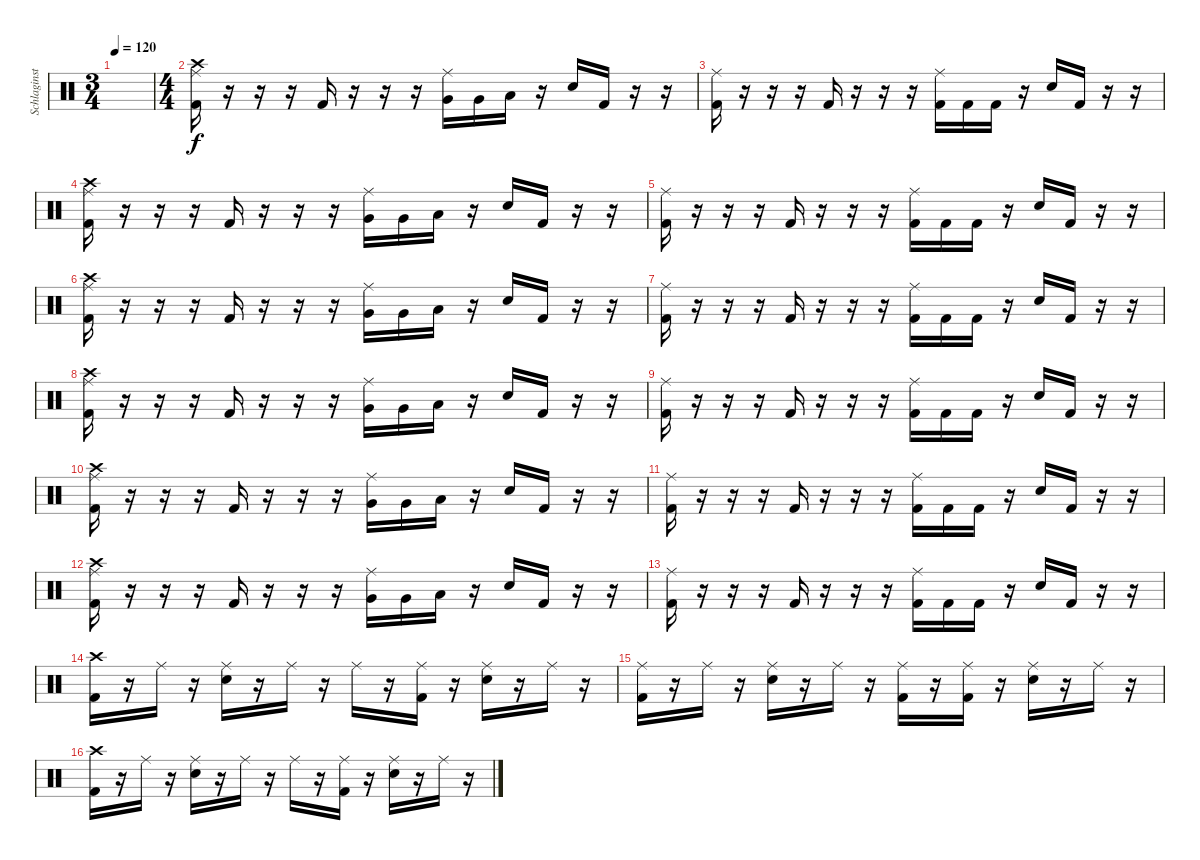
\track ("Schlaginstrumente - Auswahl" "Schlaginst") {instrument percussion}
\staff {score}
\articulation defaults
\ts (3 4)
\tempo 120
\clef neutral
\ks c
|
\ts (4 4)
("Ride (middle)" "Crash high (hit)" "Kick (hit) 2").16 r.16 r.16 r.16 "Kick (hit) 2".16 r.16 r.16 r.16 ("Ride (middle)" "Very Low Tom (hit)").16 "Very Low Tom (hit)".16 "Low Floor Tom (hit)".16 r.16 "Snare (hit) 2".16 "Kick (hit) 2".16 r.16 r.16 |
("Ride (middle)" "Kick (hit) 2").16 r.16 r.16 r.16 "Kick (hit) 2".16 r.16 r.16 r.16 ("Ride (middle)" "Kick (hit) 2").16 "Kick (hit) 2".16 "Kick (hit) 2".16 r.16 "Snare (hit) 2".16 "Kick (hit) 2".16 r.16 r.16 |
("Ride (middle)" "Crash high (hit)" "Kick (hit) 2").16 r.16 r.16 r.16 "Kick (hit) 2".16 r.16 r.16 r.16 ("Ride (middle)" "Very Low Tom (hit)").16 "Very Low Tom (hit)".16 "Low Floor Tom (hit)".16 r.16 "Snare (hit) 2".16 "Kick (hit) 2".16 r.16 r.16 |
("Ride (middle)" "Kick (hit) 2").16 r.16 r.16 r.16 "Kick (hit) 2".16 r.16 r.16 r.16 ("Ride (middle)" "Kick (hit) 2").16 "Kick (hit) 2".16 "Kick (hit) 2".16 r.16 "Snare (hit) 2".16 "Kick (hit) 2".16 r.16 r.16 |
("Ride (middle)" "Crash high (hit)" "Kick (hit) 2").16 r.16 r.16 r.16 "Kick (hit) 2".16 r.16 r.16 r.16 ("Ride (middle)" "Very Low Tom (hit)").16 "Very Low Tom (hit)".16 "Low Floor Tom (hit)".16 r.16 "Snare (hit) 2".16 "Kick (hit) 2".16 r.16 r.16 |
("Ride (middle)" "Kick (hit) 2").16 r.16 r.16 r.16 "Kick (hit) 2".16 r.16 r.16 r.16 ("Ride (middle)" "Kick (hit) 2").16 "Kick (hit) 2".16 "Kick (hit) 2".16 r.16 "Snare (hit) 2".16 "Kick (hit) 2".16 r.16 r.16 |
("Ride (middle)" "Crash high (hit)" "Kick (hit) 2").16 r.16 r.16 r.16 "Kick (hit) 2".16 r.16 r.16 r.16 ("Ride (middle)" "Very Low Tom (hit)").16 "Very Low Tom (hit)".16 "Low Floor Tom (hit)".16 r.16 "Snare (hit) 2".16 "Kick (hit) 2".16 r.16 r.16 |
("Ride (middle)" "Kick (hit) 2").16 r.16 r.16 r.16 "Kick (hit) 2".16 r.16 r.16 r.16 ("Ride (middle)" "Kick (hit) 2").16 "Kick (hit) 2".16 "Kick (hit) 2".16 r.16 "Snare (hit) 2".16 "Kick (hit) 2".16 r.16 r.16 |
("Ride (middle)" "Crash high (hit)" "Kick (hit) 2").16 r.16 r.16 r.16 "Kick (hit) 2".16 r.16 r.16 r.16 ("Ride (middle)" "Very Low Tom (hit)").16 "Very Low Tom (hit)".16 "Low Floor Tom (hit)".16 r.16 "Snare (hit) 2".16 "Kick (hit) 2".16 r.16 r.16 |
("Ride (middle)" "Kick (hit) 2").16 r.16 r.16 r.16 "Kick (hit) 2".16 r.16 r.16 r.16 ("Ride (middle)" "Kick (hit) 2").16 "Kick (hit) 2".16 "Kick (hit) 2".16 r.16 "Snare (hit) 2".16 "Kick (hit) 2".16 r.16 r.16 |
("Ride (middle)" "Crash high (hit)" "Kick (hit) 2").16 r.16 r.16 r.16 "Kick (hit) 2".16 r.16 r.16 r.16 ("Ride (middle)" "Very Low Tom (hit)").16 "Very Low Tom (hit)".16 "Low Floor Tom (hit)".16 r.16 "Snare (hit) 2".16 "Kick (hit) 2".16 r.16 r.16 |
("Ride (middle)" "Kick (hit) 2").16 r.16 r.16 r.16 "Kick (hit) 2".16 r.16 r.16 r.16 ("Ride (middle)" "Kick (hit) 2").16 "Kick (hit) 2".16 "Kick (hit) 2".16 r.16 "Snare (hit) 2".16 "Kick (hit) 2".16 r.16 r.16 |
("Crash high (hit)" "Kick (hit) 2").16 r.16 "Ride (middle)".16 r.16 ("Ride (middle)" "Snare (hit) 2").16 r.16 "Ride (middle)".16 r.16 "Ride (middle)".16 r.16 ("Ride (middle)" "Kick (hit) 2").16 r.16 ("Ride (middle)" "Snare (hit) 2").16 r.16 "Ride (middle)".16 r.16 |
("Ride (middle)" "Kick (hit) 2").16 r.16 "Ride (middle)".16 r.16 ("Ride (middle)" "Snare (hit) 2").16 r.16 "Ride (middle)".16 r.16 ("Ride (middle)" "Kick (hit) 2").16 r.16 ("Ride (middle)" "Kick (hit) 2").16 r.16 ("Ride (middle)" "Snare (hit) 2").16 r.16 "Ride (middle)".16 r.16 |
("Crash high (hit)" "Kick (hit) 2").16 r.16 "Ride (middle)".16 r.16 ("Ride (middle)" "Snare (hit) 2").16 r.16 "Ride (middle)".16 r.16 "Ride (middle)".16 r.16 ("Ride (middle)" "Kick (hit) 2").16 r.16 ("Ride (middle)" "Snare (hit) 2").16 r.16 "Ride (middle)".16 r.16
